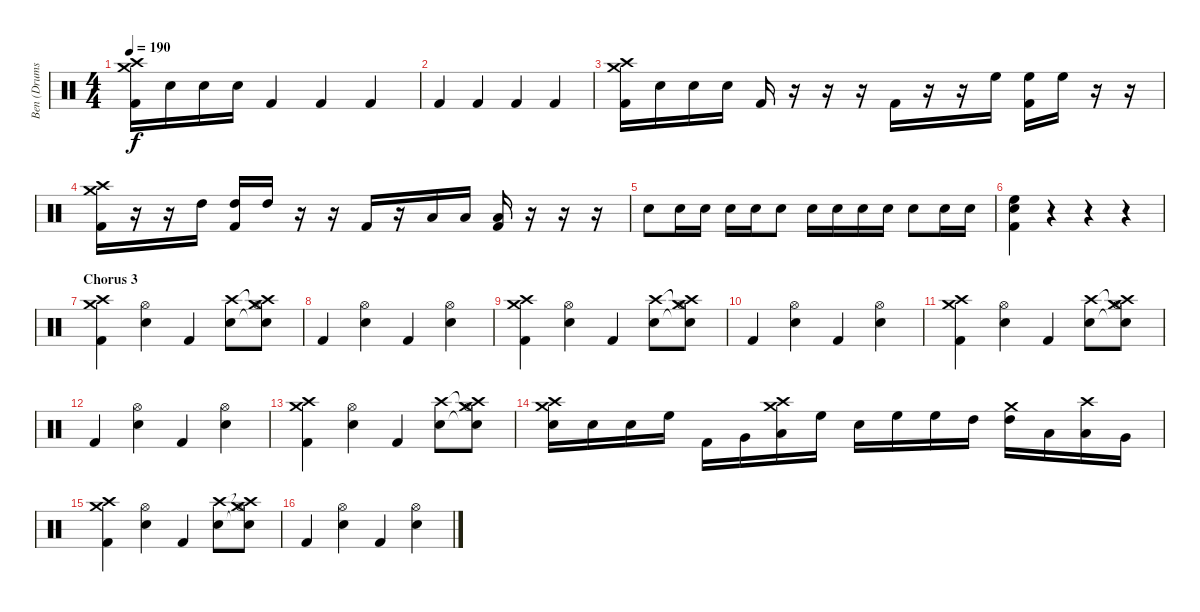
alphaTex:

\track ("Ben (Drums)" "Ben (Drums") {instrument percussion}
\staff {score}
\articulation defaults
\ts (4 4)
\tempo 190
\clef neutral
\ks c
("Kick (hit) 2" "Crash medium (hit)" "Crash high (hit)").16{dy f} "Snare (hit) 2".16 "Snare (hit) 2".16 "Snare (hit) 2".16 "Kick (hit) 2".4 "Kick (hit) 2".4 "Kick (hit) 2".4 |
"Kick (hit) 2".4 "Kick (hit) 2".4 "Kick (hit) 2".4 "Kick (hit) 2".4 |
("Kick (hit) 2" "Crash medium (hit)" "Crash high (hit)").16{volume 14} "Snare (hit) 2".16 "Snare (hit) 2".16 "Snare (hit) 2".16 "Kick (hit) 2".16 r.16 r.16 r.16 "Kick (hit) 2".16 r.16 r.16 "High Floor Tom (hit)".16 ("Kick (hit) 2" "High Floor Tom (hit)").16 "High Floor Tom (hit)".16 r.16 r.16 |
("Kick (hit) 2" "Crash medium (hit)" "Crash high (hit)").16{volume 14} r.16 r.16 "High Tom (hit)".16 ("Kick (hit) 2" "High Tom (hit)").16 "High Tom (hit)".16 r.16 r.16 "Kick (hit) 2".16 r.16 "Low Tom (hit)".16 "Low Tom (hit)".16 ("Kick (hit) 2" "Low Tom (hit)").16 r.16 r.16 r.16 |
"Snare (hit) 2".8{volume 12} "Snare (hit) 2".16 "Snare (hit) 2".16 "Snare (hit) 2".16 "Snare (hit) 2".16 "Snare (hit) 2".8 "Snare (hit) 2".16 "Snare (hit) 2".16 "Snare (hit) 2".16 "Snare (hit) 2".16 "Snare (hit) 2".8 "Snare (hit) 2".16 "Snare (hit) 2".16 |
("Kick (hit) 2" "High Floor Tom (hit)" "Snare (hit) 2").4 r.4 r.4 r.4 |
\section ("" "Chorus 3")
("Kick (hit) 2" "Crash medium (hit)" "Crash high (hit)").4{volume 16} ("Snare (hit) 2" "Hi-Hat (open)").4 "Kick (hit) 2".4 ("Snare (hit) 2" "Crash high (hit)").8 ("Snare (hit) 2"{t} "Hi-Hat (open)"{t} "Crash medium (hit)" "Crash high (hit)").8 |
"Kick (hit) 2".4 ("Snare (hit) 2" "Hi-Hat (open)").4 "Kick (hit) 2".4 ("Snare (hit) 2" "Hi-Hat (open)").4 |
("Kick (hit) 2" "Crash medium (hit)" "Crash high (hit)").4 ("Snare (hit) 2" "Hi-Hat (open)").4 "Kick (hit) 2".4 ("Snare (hit) 2" "Crash high (hit)").8 ("Snare (hit) 2"{t} "Hi-Hat (open)"{t} "Crash medium (hit)" "Crash high (hit)").8 |
"Kick (hit) 2".4 ("Snare (hit) 2" "Hi-Hat (open)").4 "Kick (hit) 2".4 ("Snare (hit) 2" "Hi-Hat (open)").4 |
("Kick (hit) 2" "Crash medium (hit)" "Crash high (hit)").4 ("Snare (hit) 2" "Hi-Hat (open)").4 "Kick (hit) 2".4 ("Snare (hit) 2" "Crash high (hit)").8 ("Snare (hit) 2"{t} "Hi-Hat (open)"{t} "Crash medium (hit)" "Crash high (hit)").8 |
"Kick (hit) 2".4 ("Snare (hit) 2" "Hi-Hat (open)").4 "Kick (hit) 2".4 ("Snare (hit) 2" "Hi-Hat (open)").4 |
("Kick (hit) 2" "Crash medium (hit)" "Crash high (hit)").4 ("Snare (hit) 2" "Hi-Hat (open)").4 "Kick (hit) 2".4 ("Snare (hit) 2" "Crash high (hit)").8 ("Snare (hit) 2"{t} "Hi-Hat (open)"{t} "Crash medium (hit)" "Crash high (hit)").8 |
("Snare (hit) 2" "Crash medium (hit)" "Crash high (hit)").16 "Snare (hit) 2".16 "Snare (hit) 2".16 "High Floor Tom (hit)".16 "Kick (hit) 2".16 "Very Low Tom (hit)".16 ("Low Tom (hit)" "Crash medium (hit)" "Crash high (hit)").16 "High Floor Tom (hit)".16 "Snare (hit) 2".16 "High Floor Tom (hit)".16 "High Floor Tom (hit)".16 "High Tom (hit)".16 ("High Tom (hit)" "Crash medium (hit)").16 "Low Tom (hit)".16 ("Low Tom (hit)" "Crash high (hit)").16 "Very Low Tom (hit)".16 |
("Kick (hit) 2" "Crash medium (hit)" "Crash high (hit)").4 ("Snare (hit) 2" "Hi-Hat (open)").4 "Kick (hit) 2".4 ("Snare (hit) 2" "Crash high (hit)").8 ("Snare (hit) 2"{t} "Hi-Hat (open)"{t} "Crash medium (hit)" "Crash high (hit)").8 |
"Kick (hit) 2".4 ("Snare (hit) 2" "Hi-Hat (open)").4 "Kick (hit) 2".4 ("Snare (hit) 2" "Hi-Hat (open)").4
